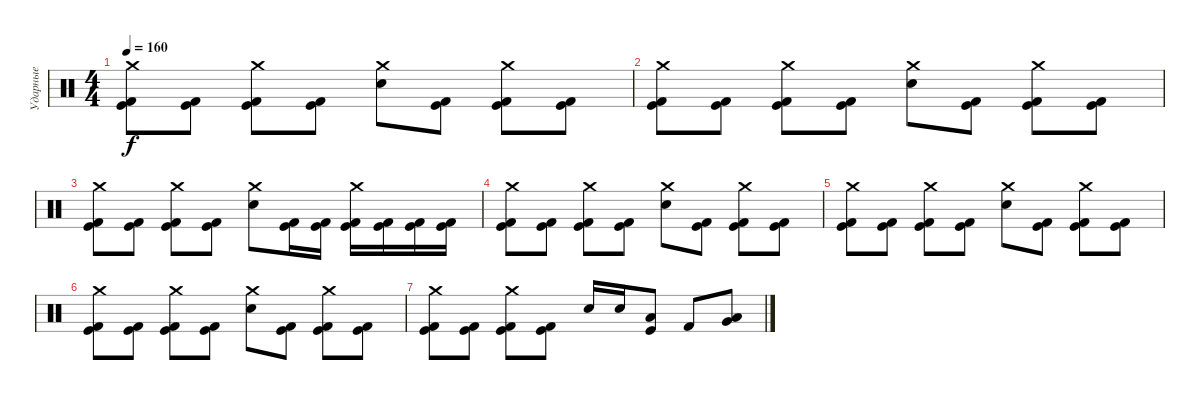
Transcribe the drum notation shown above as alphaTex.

\track ("Ударные" "Ударные") {instrument percussion}
\staff {score}
\articulation defaults
\ts (4 4)
\tempo 160
\clef neutral
\ks c
("Crash medium (hit)" "Kick (hit)" "Kick (hit) 2").8{dy f} ("Kick (hit)" "Kick (hit) 2").8 ("Crash medium (hit)" "Kick (hit)" "Kick (hit) 2").8 ("Kick (hit)" "Kick (hit) 2").8 ("Crash medium (hit)" "Snare (hit) 2").8 ("Kick (hit)" "Kick (hit) 2").8 ("Crash medium (hit)" "Kick (hit)" "Kick (hit) 2").8 ("Kick (hit)" "Kick (hit) 2").8 |
("Crash medium (hit)" "Kick (hit)" "Kick (hit) 2").8 ("Kick (hit)" "Kick (hit) 2").8 ("Crash medium (hit)" "Kick (hit)" "Kick (hit) 2").8 ("Kick (hit)" "Kick (hit) 2").8 ("Crash medium (hit)" "Snare (hit) 2").8 ("Kick (hit)" "Kick (hit) 2").8 ("Crash medium (hit)" "Kick (hit)" "Kick (hit) 2").8 ("Kick (hit)" "Kick (hit) 2").8 |
("Crash medium (hit)" "Kick (hit)" "Kick (hit) 2").8 ("Kick (hit)" "Kick (hit) 2").8 ("Crash medium (hit)" "Kick (hit)" "Kick (hit) 2").8 ("Kick (hit)" "Kick (hit) 2").8 ("Crash medium (hit)" "Snare (hit) 2").8 ("Kick (hit)" "Kick (hit) 2").16 ("Kick (hit)" "Kick (hit) 2").16 ("Crash medium (hit)" "Kick (hit)" "Kick (hit) 2").16 ("Kick (hit)" "Kick (hit) 2").16 ("Kick (hit)" "Kick (hit) 2").16 ("Kick (hit)" "Kick (hit) 2").16 |
("Crash medium (hit)" "Kick (hit)" "Kick (hit) 2").8 ("Kick (hit)" "Kick (hit) 2").8 ("Crash medium (hit)" "Kick (hit)" "Kick (hit) 2").8 ("Kick (hit)" "Kick (hit) 2").8 ("Crash medium (hit)" "Snare (hit) 2").8 ("Kick (hit)" "Kick (hit) 2").8 ("Crash medium (hit)" "Kick (hit)" "Kick (hit) 2").8 ("Kick (hit)" "Kick (hit) 2").8 |
("Crash medium (hit)" "Kick (hit)" "Kick (hit) 2").8 ("Kick (hit)" "Kick (hit) 2").8 ("Crash medium (hit)" "Kick (hit)" "Kick (hit) 2").8 ("Kick (hit)" "Kick (hit) 2").8 ("Crash medium (hit)" "Snare (hit) 2").8 ("Kick (hit)" "Kick (hit) 2").8 ("Crash medium (hit)" "Kick (hit)" "Kick (hit) 2").8 ("Kick (hit)" "Kick (hit) 2").8 |
("Crash medium (hit)" "Kick (hit)" "Kick (hit) 2").8 ("Kick (hit)" "Kick (hit) 2").8 ("Crash medium (hit)" "Kick (hit)" "Kick (hit) 2").8 ("Kick (hit)" "Kick (hit) 2").8 ("Crash medium (hit)" "Snare (hit) 2").8 ("Kick (hit)" "Kick (hit) 2").8 ("Crash medium (hit)" "Kick (hit)" "Kick (hit) 2").8 ("Kick (hit)" "Kick (hit) 2").8 |
("Crash medium (hit)" "Kick (hit)" "Kick (hit) 2").8 ("Kick (hit)" "Kick (hit) 2").8 ("Crash medium (hit)" "Kick (hit)" "Kick (hit) 2").8 ("Kick (hit)" "Kick (hit) 2").8 "Snare (hit) 2".16 "Snare (hit) 2".16 ("Low Tom (hit)" "Kick (hit)").8 "Kick (hit) 2".8 ("Low Tom (hit)" "Very Low Tom (hit)").8
